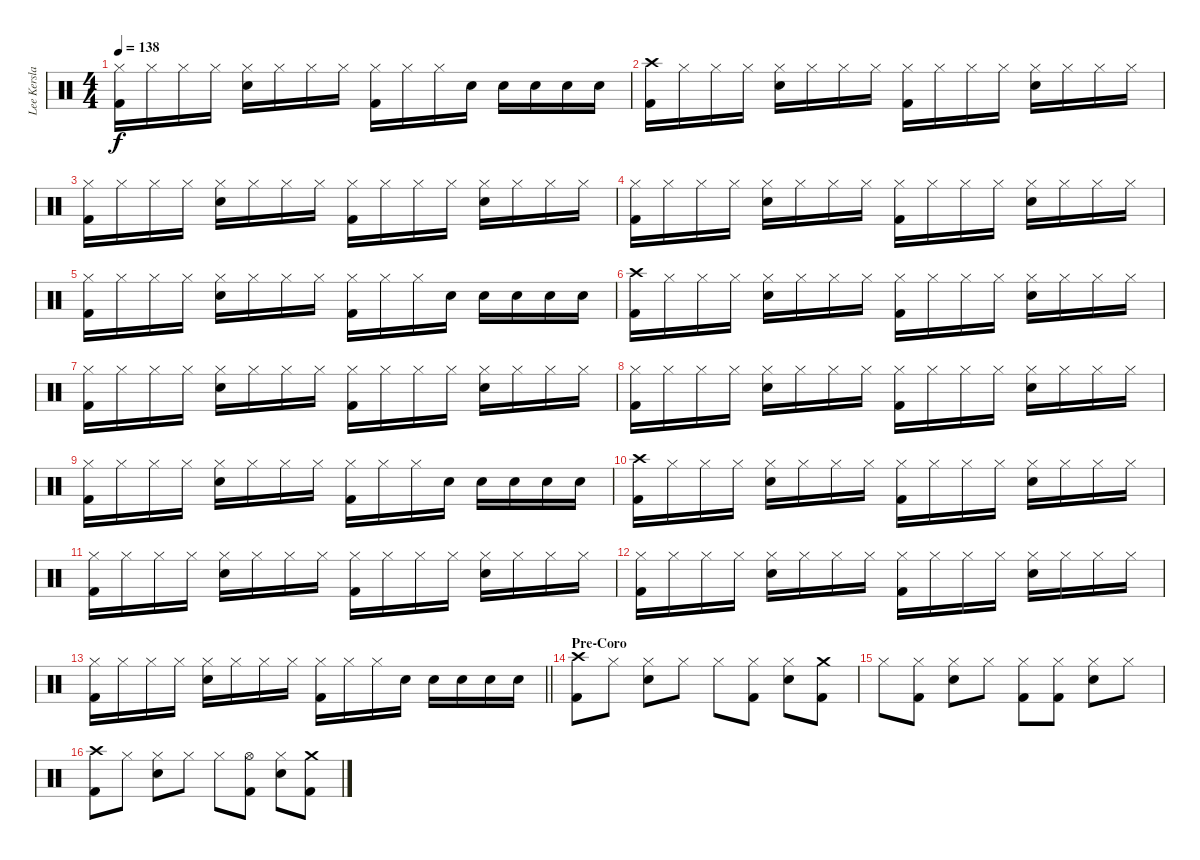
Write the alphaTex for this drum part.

\track ("Lee Kerslake" "Lee Kersla") {instrument percussion}
\staff {score}
\articulation defaults
\ts (4 4)
\tempo 138
\clef neutral
\ks c
("Hi-Hat (closed)" "Kick (hit) 2").16{dy f} "Hi-Hat (closed)".16 "Hi-Hat (closed)".16 "Hi-Hat (closed)".16 ("Hi-Hat (closed)" "Snare (hit) 2").16 "Hi-Hat (closed)".16 "Hi-Hat (closed)".16 "Hi-Hat (closed)".16 ("Hi-Hat (closed)" "Kick (hit) 2").16 "Hi-Hat (closed)".16 "Hi-Hat (closed)".16 "Snare (hit) 2".16 "Snare (hit) 2".16 "Snare (hit) 2".16 "Snare (hit) 2".16 "Snare (hit) 2".16 |
("Crash high (hit)" "Kick (hit) 2").16 "Hi-Hat (closed)".16 "Hi-Hat (closed)".16 "Hi-Hat (closed)".16 ("Hi-Hat (closed)" "Snare (hit) 2").16 "Hi-Hat (closed)".16 "Hi-Hat (closed)".16 "Hi-Hat (closed)".16 ("Hi-Hat (closed)" "Kick (hit) 2").16 "Hi-Hat (closed)".16 "Hi-Hat (closed)".16 "Hi-Hat (closed)".16 ("Hi-Hat (closed)" "Snare (hit) 2").16 "Hi-Hat (closed)".16 "Hi-Hat (closed)".16 "Hi-Hat (closed)".16 |
("Hi-Hat (closed)" "Kick (hit) 2").16 "Hi-Hat (closed)".16 "Hi-Hat (closed)".16 "Hi-Hat (closed)".16 ("Hi-Hat (closed)" "Snare (hit) 2").16 "Hi-Hat (closed)".16 "Hi-Hat (closed)".16 "Hi-Hat (closed)".16 ("Hi-Hat (closed)" "Kick (hit) 2").16 "Hi-Hat (closed)".16 "Hi-Hat (closed)".16 "Hi-Hat (closed)".16 ("Hi-Hat (closed)" "Snare (hit) 2").16 "Hi-Hat (closed)".16 "Hi-Hat (closed)".16 "Hi-Hat (closed)".16 |
("Hi-Hat (closed)" "Kick (hit) 2").16 "Hi-Hat (closed)".16 "Hi-Hat (closed)".16 "Hi-Hat (closed)".16 ("Hi-Hat (closed)" "Snare (hit) 2").16 "Hi-Hat (closed)".16 "Hi-Hat (closed)".16 "Hi-Hat (closed)".16 ("Hi-Hat (closed)" "Kick (hit) 2").16 "Hi-Hat (closed)".16 "Hi-Hat (closed)".16 "Hi-Hat (closed)".16 ("Hi-Hat (closed)" "Snare (hit) 2").16 "Hi-Hat (closed)".16 "Hi-Hat (closed)".16 "Hi-Hat (closed)".16 |
("Hi-Hat (closed)" "Kick (hit) 2").16 "Hi-Hat (closed)".16 "Hi-Hat (closed)".16 "Hi-Hat (closed)".16 ("Hi-Hat (closed)" "Snare (hit) 2").16 "Hi-Hat (closed)".16 "Hi-Hat (closed)".16 "Hi-Hat (closed)".16 ("Hi-Hat (closed)" "Kick (hit) 2").16 "Hi-Hat (closed)".16 "Hi-Hat (closed)".16 "Snare (hit) 2".16 "Snare (hit) 2".16 "Snare (hit) 2".16 "Snare (hit) 2".16 "Snare (hit) 2".16 |
("Crash high (hit)" "Kick (hit) 2").16 "Hi-Hat (closed)".16 "Hi-Hat (closed)".16 "Hi-Hat (closed)".16 ("Hi-Hat (closed)" "Snare (hit) 2").16 "Hi-Hat (closed)".16 "Hi-Hat (closed)".16 "Hi-Hat (closed)".16 ("Hi-Hat (closed)" "Kick (hit) 2").16 "Hi-Hat (closed)".16 "Hi-Hat (closed)".16 "Hi-Hat (closed)".16 ("Hi-Hat (closed)" "Snare (hit) 2").16 "Hi-Hat (closed)".16 "Hi-Hat (closed)".16 "Hi-Hat (closed)".16 |
("Hi-Hat (closed)" "Kick (hit) 2").16 "Hi-Hat (closed)".16 "Hi-Hat (closed)".16 "Hi-Hat (closed)".16 ("Hi-Hat (closed)" "Snare (hit) 2").16 "Hi-Hat (closed)".16 "Hi-Hat (closed)".16 "Hi-Hat (closed)".16 ("Hi-Hat (closed)" "Kick (hit) 2").16 "Hi-Hat (closed)".16 "Hi-Hat (closed)".16 "Hi-Hat (closed)".16 ("Hi-Hat (closed)" "Snare (hit) 2").16 "Hi-Hat (closed)".16 "Hi-Hat (closed)".16 "Hi-Hat (closed)".16 |
("Hi-Hat (closed)" "Kick (hit) 2").16 "Hi-Hat (closed)".16 "Hi-Hat (closed)".16 "Hi-Hat (closed)".16 ("Hi-Hat (closed)" "Snare (hit) 2").16 "Hi-Hat (closed)".16 "Hi-Hat (closed)".16 "Hi-Hat (closed)".16 ("Hi-Hat (closed)" "Kick (hit) 2").16 "Hi-Hat (closed)".16 "Hi-Hat (closed)".16 "Hi-Hat (closed)".16 ("Hi-Hat (closed)" "Snare (hit) 2").16 "Hi-Hat (closed)".16 "Hi-Hat (closed)".16 "Hi-Hat (closed)".16 |
("Hi-Hat (closed)" "Kick (hit) 2").16 "Hi-Hat (closed)".16 "Hi-Hat (closed)".16 "Hi-Hat (closed)".16 ("Hi-Hat (closed)" "Snare (hit) 2").16 "Hi-Hat (closed)".16 "Hi-Hat (closed)".16 "Hi-Hat (closed)".16 ("Hi-Hat (closed)" "Kick (hit) 2").16 "Hi-Hat (closed)".16 "Hi-Hat (closed)".16 "Snare (hit) 2".16 "Snare (hit) 2".16 "Snare (hit) 2".16 "Snare (hit) 2".16 "Snare (hit) 2".16 |
("Crash high (hit)" "Kick (hit) 2").16 "Hi-Hat (closed)".16 "Hi-Hat (closed)".16 "Hi-Hat (closed)".16 ("Hi-Hat (closed)" "Snare (hit) 2").16 "Hi-Hat (closed)".16 "Hi-Hat (closed)".16 "Hi-Hat (closed)".16 ("Hi-Hat (closed)" "Kick (hit) 2").16 "Hi-Hat (closed)".16 "Hi-Hat (closed)".16 "Hi-Hat (closed)".16 ("Hi-Hat (closed)" "Snare (hit) 2").16 "Hi-Hat (closed)".16 "Hi-Hat (closed)".16 "Hi-Hat (closed)".16 |
("Hi-Hat (closed)" "Kick (hit) 2").16 "Hi-Hat (closed)".16 "Hi-Hat (closed)".16 "Hi-Hat (closed)".16 ("Hi-Hat (closed)" "Snare (hit) 2").16 "Hi-Hat (closed)".16 "Hi-Hat (closed)".16 "Hi-Hat (closed)".16 ("Hi-Hat (closed)" "Kick (hit) 2").16 "Hi-Hat (closed)".16 "Hi-Hat (closed)".16 "Hi-Hat (closed)".16 ("Hi-Hat (closed)" "Snare (hit) 2").16 "Hi-Hat (closed)".16 "Hi-Hat (closed)".16 "Hi-Hat (closed)".16 |
("Hi-Hat (closed)" "Kick (hit) 2").16 "Hi-Hat (closed)".16 "Hi-Hat (closed)".16 "Hi-Hat (closed)".16 ("Hi-Hat (closed)" "Snare (hit) 2").16 "Hi-Hat (closed)".16 "Hi-Hat (closed)".16 "Hi-Hat (closed)".16 ("Hi-Hat (closed)" "Kick (hit) 2").16 "Hi-Hat (closed)".16 "Hi-Hat (closed)".16 "Hi-Hat (closed)".16 ("Hi-Hat (closed)" "Snare (hit) 2").16 "Hi-Hat (closed)".16 "Hi-Hat (closed)".16 "Hi-Hat (closed)".16 |
\barLineRight lightlight
("Hi-Hat (closed)" "Kick (hit) 2").16 "Hi-Hat (closed)".16 "Hi-Hat (closed)".16 "Hi-Hat (closed)".16 ("Hi-Hat (closed)" "Snare (hit) 2").16 "Hi-Hat (closed)".16 "Hi-Hat (closed)".16 "Hi-Hat (closed)".16 ("Hi-Hat (closed)" "Kick (hit) 2").16 "Hi-Hat (closed)".16 "Hi-Hat (closed)".16 "Snare (hit) 2".16 "Snare (hit) 2".16 "Snare (hit) 2".16 "Snare (hit) 2".16 "Snare (hit) 2".16 |
\section ("" "Pre-Coro")
("Crash high (hit)" "Kick (hit) 2").8 "Hi-Hat (closed)".8 ("Hi-Hat (closed)" "Snare (hit) 2").8 "Hi-Hat (closed)".8 "Hi-Hat (closed)".8 ("Hi-Hat (closed)" "Kick (hit) 2").8 ("Hi-Hat (closed)" "Snare (hit) 2").8 ("Crash medium (hit)" "Kick (hit) 2").8 |
"Hi-Hat (closed)".8 ("Hi-Hat (closed)" "Kick (hit) 2").8 ("Hi-Hat (closed)" "Snare (hit) 2").8 "Hi-Hat (closed)".8 ("Hi-Hat (closed)" "Kick (hit) 2").8 ("Hi-Hat (closed)" "Kick (hit) 2").8 ("Hi-Hat (closed)" "Snare (hit) 2").8 "Hi-Hat (closed)".8 |
("Crash high (hit)" "Kick (hit) 2").8 "Hi-Hat (closed)".8 ("Hi-Hat (closed)" "Snare (hit) 2").8 "Hi-Hat (closed)".8 "Hi-Hat (closed)".8 ("Hi-Hat (open)" "Kick (hit) 2").8 ("Hi-Hat (closed)" "Snare (hit) 2").8 ("Crash medium (hit)" "Kick (hit) 2").8
